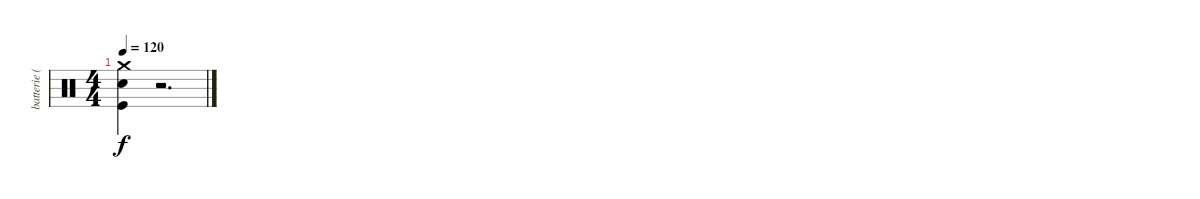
\track ("batterie ( Louie Beatto ) " "batterie (") {instrument percussion}
\staff {score}
\articulation defaults
\ts (4 4)
\tempo 120
\clef neutral
\ks c
("Crash medium (hit)" "Snare (hit) 2" "Kick (hit)").4{dy f} r.2{d}
